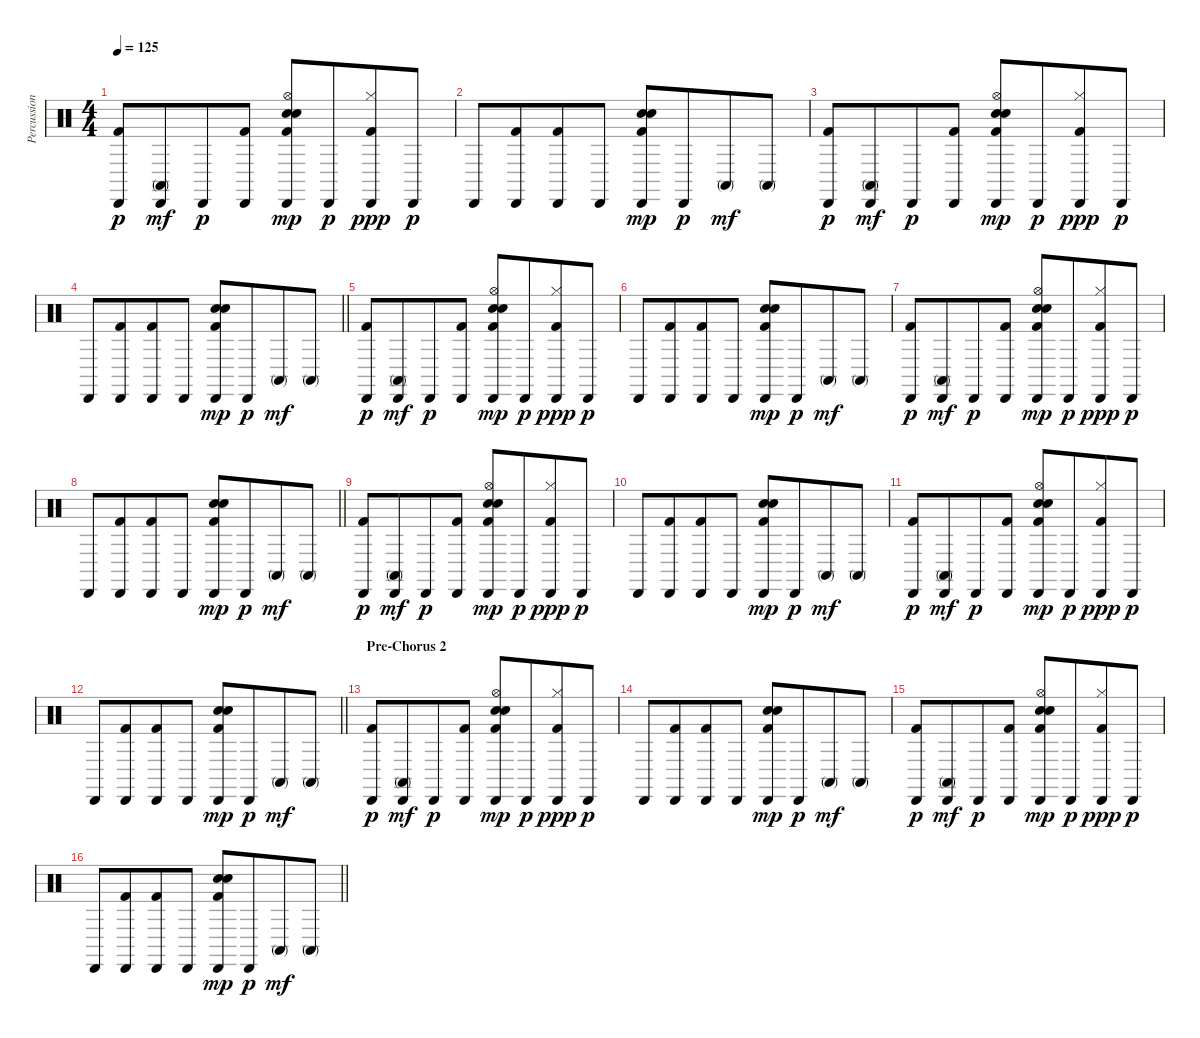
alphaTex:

\track ("Percussion" "Percussion") {instrument percussion}
\staff {score}
\articulation defaults
\ts (4 4)
\tempo 125
\clef neutral
\ks c
("Cabasa (hit)" "Kick (hit) 2").8{dy p} ("Cabasa (hit)" "Conga high (mute)").8{dy mf beam merge} "Cabasa (hit)".8{dy p} ("Cabasa (hit)" "Kick (hit) 2").8 ("Cabasa (hit)" "Hi-Hat (open)" "Hand Clap (hit)" "Electric Snare (hit)" "Kick (hit) 2").8{dy mp} "Cabasa (hit)".8{dy p beam merge} ("Cabasa (hit)" "Hi-Hat (closed)" "Kick (hit) 2").8{dy ppp} "Cabasa (hit)".8{dy p} |
"Cabasa (hit)".8 ("Cabasa (hit)" "Kick (hit) 2").8{beam merge} ("Cabasa (hit)" "Kick (hit) 2").8 "Cabasa (hit)".8 ("Cabasa (hit)" "Hand Clap (hit)" "Electric Snare (hit)" "Kick (hit) 2").8{dy mp} "Cabasa (hit)".8{dy p beam merge} "Conga high (mute)".8{dy mf} "Conga high (mute)".8 |
("Cabasa (hit)" "Kick (hit) 2").8{dy p} ("Cabasa (hit)" "Conga high (mute)").8{dy mf beam merge} "Cabasa (hit)".8{dy p} ("Cabasa (hit)" "Kick (hit) 2").8 ("Cabasa (hit)" "Hi-Hat (open)" "Hand Clap (hit)" "Electric Snare (hit)" "Kick (hit) 2").8{dy mp} "Cabasa (hit)".8{dy p beam merge} ("Cabasa (hit)" "Hi-Hat (closed)" "Kick (hit) 2").8{dy ppp} "Cabasa (hit)".8{dy p} |
\barLineRight lightlight "Cabasa (hit)".8
("Cabasa (hit)" "Kick (hit) 2").8{beam merge} ("Cabasa (hit)" "Kick (hit) 2").8 "Cabasa (hit)".8 ("Cabasa (hit)" "Hand Clap (hit)" "Electric Snare (hit)" "Kick (hit) 2").8{dy mp} "Cabasa (hit)".8{dy p beam merge} "Conga high (mute)".8{dy mf} "Conga high (mute)".8 |
("Cabasa (hit)" "Kick (hit) 2").8{dy p} ("Cabasa (hit)" "Conga high (mute)").8{dy mf beam merge} "Cabasa (hit)".8{dy p} ("Cabasa (hit)" "Kick (hit) 2").8 ("Cabasa (hit)" "Hi-Hat (open)" "Hand Clap (hit)" "Electric Snare (hit)" "Kick (hit) 2").8{dy mp} "Cabasa (hit)".8{dy p beam merge} ("Cabasa (hit)" "Hi-Hat (closed)" "Kick (hit) 2").8{dy ppp} "Cabasa (hit)".8{dy p} |
"Cabasa (hit)".8 ("Cabasa (hit)" "Kick (hit) 2").8{beam merge} ("Cabasa (hit)" "Kick (hit) 2").8 "Cabasa (hit)".8 ("Cabasa (hit)" "Hand Clap (hit)" "Electric Snare (hit)" "Kick (hit) 2").8{dy mp} "Cabasa (hit)".8{dy p beam merge} "Conga high (mute)".8{dy mf} "Conga high (mute)".8 |
("Cabasa (hit)" "Kick (hit) 2").8{dy p} ("Cabasa (hit)" "Conga high (mute)").8{dy mf beam merge} "Cabasa (hit)".8{dy p} ("Cabasa (hit)" "Kick (hit) 2").8 ("Cabasa (hit)" "Hi-Hat (open)" "Hand Clap (hit)" "Electric Snare (hit)" "Kick (hit) 2").8{dy mp} "Cabasa (hit)".8{dy p beam merge} ("Cabasa (hit)" "Hi-Hat (closed)" "Kick (hit) 2").8{dy ppp} "Cabasa (hit)".8{dy p} |
\barLineRight lightlight "Cabasa (hit)".8
("Cabasa (hit)" "Kick (hit) 2").8{beam merge} ("Cabasa (hit)" "Kick (hit) 2").8 "Cabasa (hit)".8 ("Cabasa (hit)" "Hand Clap (hit)" "Electric Snare (hit)" "Kick (hit) 2").8{dy mp} "Cabasa (hit)".8{dy p beam merge} "Conga high (mute)".8{dy mf} "Conga high (mute)".8 |
("Cabasa (hit)" "Kick (hit) 2").8{dy p} ("Cabasa (hit)" "Conga high (mute)").8{dy mf beam merge} "Cabasa (hit)".8{dy p} ("Cabasa (hit)" "Kick (hit) 2").8 ("Cabasa (hit)" "Hi-Hat (open)" "Hand Clap (hit)" "Electric Snare (hit)" "Kick (hit) 2").8{dy mp} "Cabasa (hit)".8{dy p beam merge} ("Cabasa (hit)" "Hi-Hat (closed)" "Kick (hit) 2").8{dy ppp} "Cabasa (hit)".8{dy p} |
"Cabasa (hit)".8 ("Cabasa (hit)" "Kick (hit) 2").8{beam merge} ("Cabasa (hit)" "Kick (hit) 2").8 "Cabasa (hit)".8 ("Cabasa (hit)" "Hand Clap (hit)" "Electric Snare (hit)" "Kick (hit) 2").8{dy mp} "Cabasa (hit)".8{dy p beam merge} "Conga high (mute)".8{dy mf} "Conga high (mute)".8 |
("Cabasa (hit)" "Kick (hit) 2").8{dy p} ("Cabasa (hit)" "Conga high (mute)").8{dy mf beam merge} "Cabasa (hit)".8{dy p} ("Cabasa (hit)" "Kick (hit) 2").8 ("Cabasa (hit)" "Hi-Hat (open)" "Hand Clap (hit)" "Electric Snare (hit)" "Kick (hit) 2").8{dy mp} "Cabasa (hit)".8{dy p beam merge} ("Cabasa (hit)" "Hi-Hat (closed)" "Kick (hit) 2").8{dy ppp} "Cabasa (hit)".8{dy p} |
\barLineRight lightlight "Cabasa (hit)".8
("Cabasa (hit)" "Kick (hit) 2").8{beam merge} ("Cabasa (hit)" "Kick (hit) 2").8 "Cabasa (hit)".8 ("Cabasa (hit)" "Hand Clap (hit)" "Electric Snare (hit)" "Kick (hit) 2").8{dy mp} "Cabasa (hit)".8{dy p beam merge} "Conga high (mute)".8{dy mf} "Conga high (mute)".8 |
\section ("" "Pre-Chorus 2")
("Cabasa (hit)" "Kick (hit) 2").8{dy p} ("Cabasa (hit)" "Conga high (mute)").8{dy mf beam merge} "Cabasa (hit)".8{dy p} ("Cabasa (hit)" "Kick (hit) 2").8 ("Cabasa (hit)" "Hi-Hat (open)" "Hand Clap (hit)" "Electric Snare (hit)" "Kick (hit) 2").8{dy mp} "Cabasa (hit)".8{dy p beam merge} ("Cabasa (hit)" "Hi-Hat (closed)" "Kick (hit) 2").8{dy ppp} "Cabasa (hit)".8{dy p} |
"Cabasa (hit)".8 ("Cabasa (hit)" "Kick (hit) 2").8{beam merge} ("Cabasa (hit)" "Kick (hit) 2").8 "Cabasa (hit)".8 ("Cabasa (hit)" "Hand Clap (hit)" "Electric Snare (hit)" "Kick (hit) 2").8{dy mp} "Cabasa (hit)".8{dy p beam merge} "Conga high (mute)".8{dy mf} "Conga high (mute)".8 |
("Cabasa (hit)" "Kick (hit) 2").8{dy p} ("Cabasa (hit)" "Conga high (mute)").8{dy mf beam merge} "Cabasa (hit)".8{dy p} ("Cabasa (hit)" "Kick (hit) 2").8 ("Cabasa (hit)" "Hi-Hat (open)" "Hand Clap (hit)" "Electric Snare (hit)" "Kick (hit) 2").8{dy mp} "Cabasa (hit)".8{dy p beam merge} ("Cabasa (hit)" "Hi-Hat (closed)" "Kick (hit) 2").8{dy ppp} "Cabasa (hit)".8{dy p} |
\barLineRight lightlight "Cabasa (hit)".8
("Cabasa (hit)" "Kick (hit) 2").8{beam merge} ("Cabasa (hit)" "Kick (hit) 2").8 "Cabasa (hit)".8 ("Cabasa (hit)" "Hand Clap (hit)" "Electric Snare (hit)" "Kick (hit) 2").8{dy mp} "Cabasa (hit)".8{dy p beam merge} "Conga high (mute)".8{dy mf} "Conga high (mute)".8
